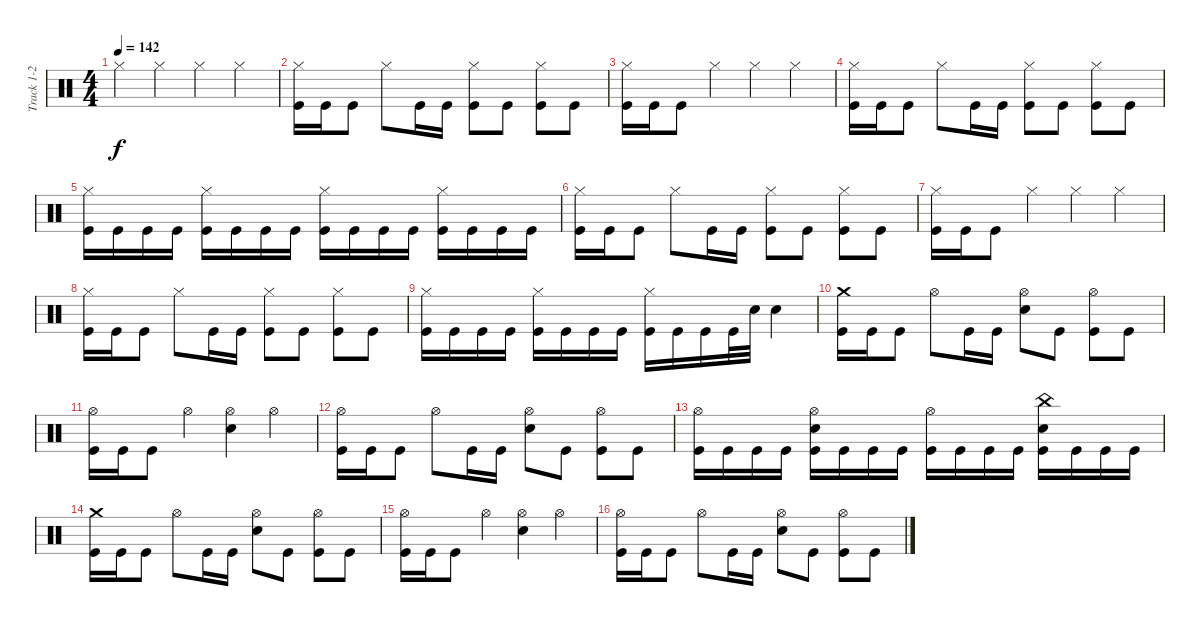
\track ("Track 1-2" "Track 1-2") {instrument percussion}
\staff {score}
\articulation defaults
\ts (4 4)
\tempo 142
\clef neutral
\ks c "Hi-Hat (closed)".4{dy f} "Hi-Hat (closed)".4 "Hi-Hat (closed)".4 "Hi-Hat (closed)".4
|
("Hi-Hat (closed)" "Kick (hit)").16 "Kick (hit)".16 "Kick (hit)".8 "Hi-Hat (closed)".8 "Kick (hit)".16 "Kick (hit)".16 ("Hi-Hat (closed)" "Kick (hit)").8 "Kick (hit)".8 ("Hi-Hat (closed)" "Kick (hit)").8 "Kick (hit)".8 |
("Hi-Hat (closed)" "Kick (hit)").16 "Kick (hit)".16 "Kick (hit)".8 "Hi-Hat (closed)".4 "Hi-Hat (closed)".4 "Hi-Hat (closed)".4 |
("Hi-Hat (closed)" "Kick (hit)").16 "Kick (hit)".16 "Kick (hit)".8 "Hi-Hat (closed)".8 "Kick (hit)".16 "Kick (hit)".16 ("Hi-Hat (closed)" "Kick (hit)").8 "Kick (hit)".8 ("Hi-Hat (closed)" "Kick (hit)").8 "Kick (hit)".8 |
("Hi-Hat (closed)" "Kick (hit)").16 "Kick (hit)".16 "Kick (hit)".16 "Kick (hit)".16 ("Hi-Hat (closed)" "Kick (hit)").16 "Kick (hit)".16 "Kick (hit)".16 "Kick (hit)".16 ("Hi-Hat (closed)" "Kick (hit)").16 "Kick (hit)".16 "Kick (hit)".16 "Kick (hit)".16 ("Hi-Hat (closed)" "Kick (hit)").16 "Kick (hit)".16 "Kick (hit)".16 "Kick (hit)".16 |
("Hi-Hat (closed)" "Kick (hit)").16 "Kick (hit)".16 "Kick (hit)".8 "Hi-Hat (closed)".8 "Kick (hit)".16 "Kick (hit)".16 ("Hi-Hat (closed)" "Kick (hit)").8 "Kick (hit)".8 ("Hi-Hat (closed)" "Kick (hit)").8 "Kick (hit)".8 |
("Hi-Hat (closed)" "Kick (hit)").16 "Kick (hit)".16 "Kick (hit)".8 "Hi-Hat (closed)".4 "Hi-Hat (closed)".4 "Hi-Hat (closed)".4 |
("Hi-Hat (closed)" "Kick (hit)").16 "Kick (hit)".16 "Kick (hit)".8 "Hi-Hat (closed)".8 "Kick (hit)".16 "Kick (hit)".16 ("Hi-Hat (closed)" "Kick (hit)").8 "Kick (hit)".8 ("Hi-Hat (closed)" "Kick (hit)").8 "Kick (hit)".8 |
("Hi-Hat (closed)" "Kick (hit)").16 "Kick (hit)".16 "Kick (hit)".16 "Kick (hit)".16 ("Hi-Hat (closed)" "Kick (hit)").16 "Kick (hit)".16 "Kick (hit)".16 "Kick (hit)".16 ("Hi-Hat (closed)" "Kick (hit)").16 "Kick (hit)".16 "Kick (hit)".16 "Kick (hit)".32 "Electric Snare (hit)".32 "Electric Snare (hit)".4 |
("Crash medium (hit)" "Kick (hit)").16 "Kick (hit)".16 "Kick (hit)".8 "Hi-Hat (open)".8 "Kick (hit)".16 "Kick (hit)".16 ("Hi-Hat (open)" "Electric Snare (hit)").8 "Kick (hit)".8 ("Hi-Hat (open)" "Kick (hit)").8 "Kick (hit)".8 |
("Hi-Hat (open)" "Kick (hit)").16 "Kick (hit)".16 "Kick (hit)".8 "Hi-Hat (open)".4 ("Hi-Hat (open)" "Electric Snare (hit)").4 "Hi-Hat (open)".4 |
("Hi-Hat (open)" "Kick (hit)").16 "Kick (hit)".16 "Kick (hit)".8 "Hi-Hat (open)".8 "Kick (hit)".16 "Kick (hit)".16 ("Hi-Hat (open)" "Electric Snare (hit)").8 "Kick (hit)".8 ("Hi-Hat (open)" "Kick (hit)").8 "Kick (hit)".8 |
("Hi-Hat (open)" "Kick (hit)").16 "Kick (hit)".16 "Kick (hit)".16 "Kick (hit)".16 ("Hi-Hat (open)" "Electric Snare (hit)" "Kick (hit)").16 "Kick (hit)".16 "Kick (hit)".16 "Kick (hit)".16 ("Hi-Hat (open)" "Kick (hit)").16 "Kick (hit)".16 "Kick (hit)".16 "Kick (hit)".16 ("China (hit)" "Electric Snare (hit)" "Kick (hit)").16 "Kick (hit)".16 "Kick (hit)".16 "Kick (hit)".16 |
("Crash medium (hit)" "Kick (hit)").16 "Kick (hit)".16 "Kick (hit)".8 "Hi-Hat (open)".8 "Kick (hit)".16 "Kick (hit)".16 ("Hi-Hat (open)" "Electric Snare (hit)").8 "Kick (hit)".8 ("Hi-Hat (open)" "Kick (hit)").8 "Kick (hit)".8 |
("Hi-Hat (open)" "Kick (hit)").16 "Kick (hit)".16 "Kick (hit)".8 "Hi-Hat (open)".4 ("Hi-Hat (open)" "Electric Snare (hit)").4 "Hi-Hat (open)".4 |
("Hi-Hat (open)" "Kick (hit)").16 "Kick (hit)".16 "Kick (hit)".8 "Hi-Hat (open)".8 "Kick (hit)".16 "Kick (hit)".16 ("Hi-Hat (open)" "Electric Snare (hit)").8 "Kick (hit)".8 ("Hi-Hat (open)" "Kick (hit)").8 "Kick (hit)".8
